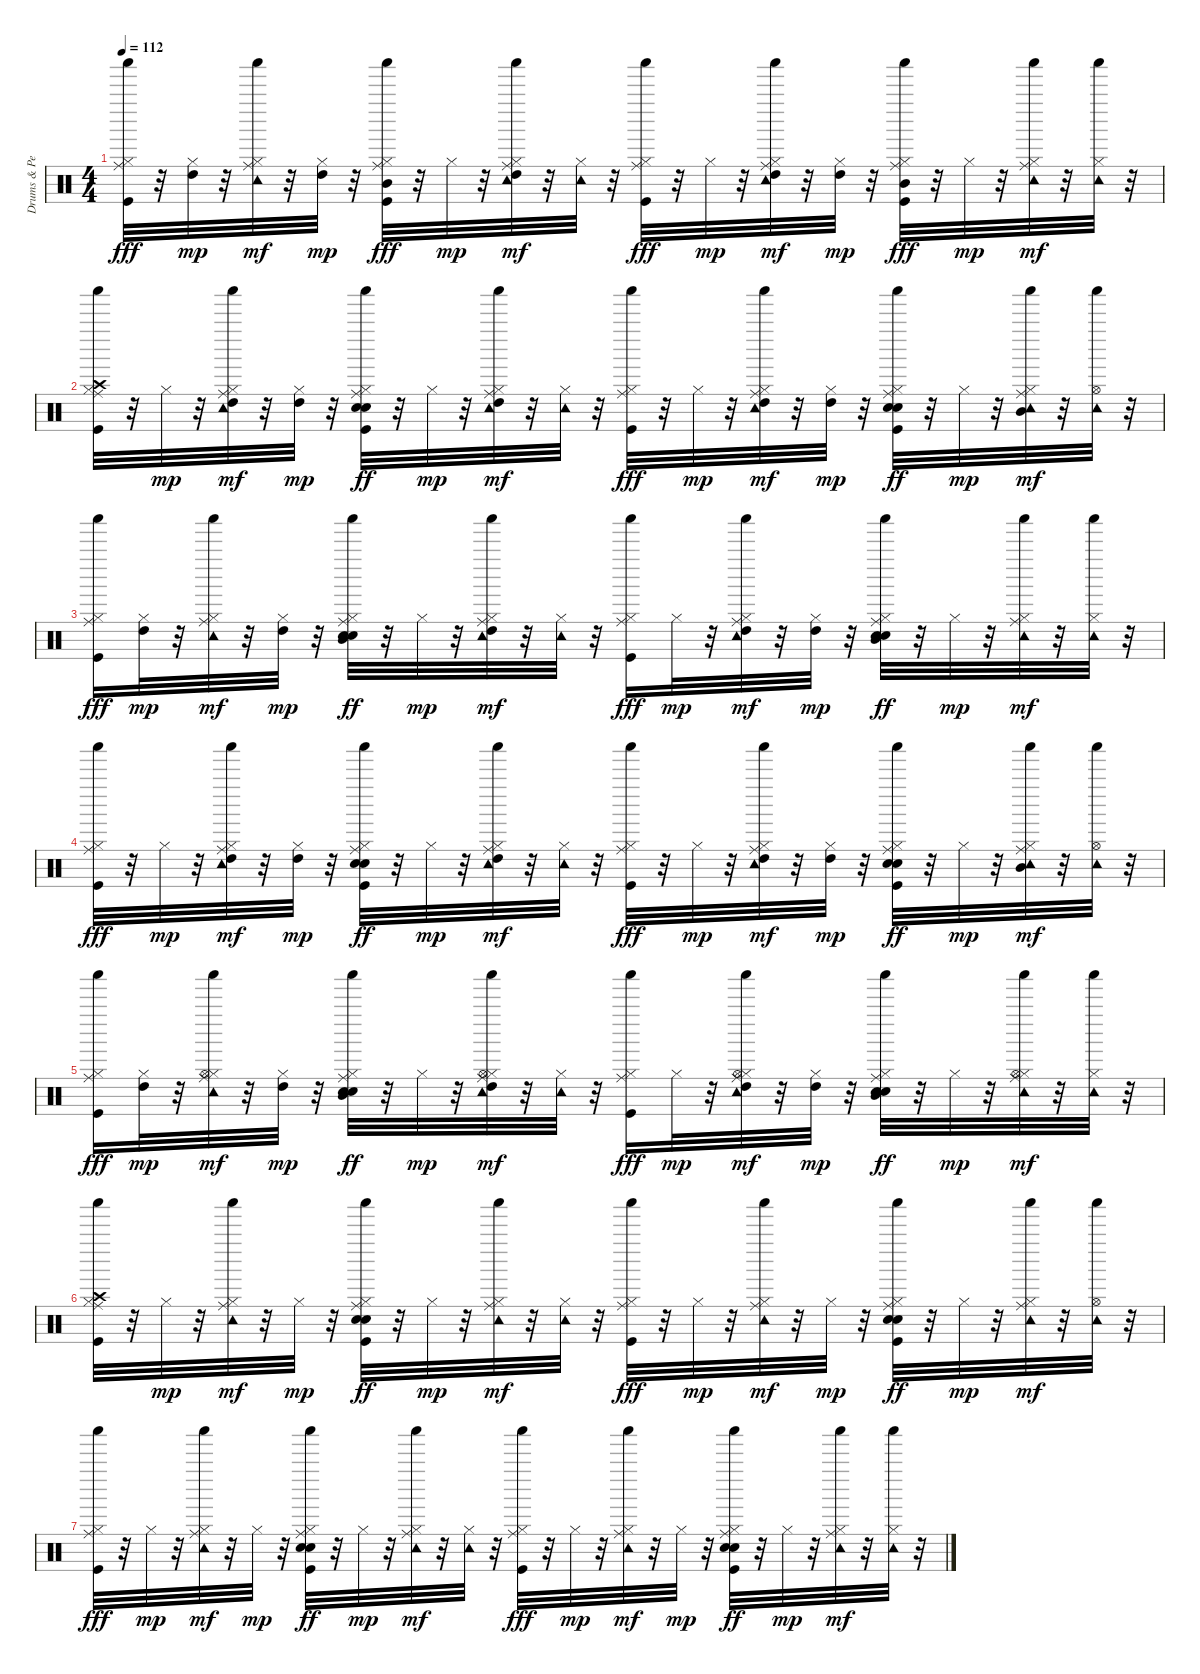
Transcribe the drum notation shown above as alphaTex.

\track ("Drums & Percussion" "Drums & Pe") {instrument percussion}
\staff {score}
\articulation defaults
\ts (4 4)
\tempo 112
\clef neutral
\ks c
("Shaker (hit)" "Hi-Hat (closed)" "Ride (middle)" "Kick (hit)").32{dy fff} r.32 ("Hi-Hat (closed)" "High Tom (hit)").32{dy mp} r.32 ("Shaker (hit)" "Hi-Hat (closed)" "Ride (middle)" "Tambourine (hit)").32{dy mf} r.32 ("Hi-Hat (closed)" "High Tom (hit)").32{dy mp} r.32 ("Shaker (hit)" "Hi-Hat (closed)" "Ride (middle)" "Mid Tom (hit)" "Kick (hit)").32{dy fff} r.32 "Hi-Hat (closed)".32{dy mp} r.32 ("Shaker (hit)" "Hi-Hat (closed)" "Ride (middle)" "Tambourine (hit)" "High Tom (hit)").32{dy mf} r.32 ("Hi-Hat (closed)" "Tambourine (hit)").32 r.32 ("Shaker (hit)" "Hi-Hat (closed)" "Ride (middle)" "Kick (hit)").32{dy fff} r.32 "Hi-Hat (closed)".32{dy mp} r.32 ("Shaker (hit)" "Hi-Hat (closed)" "Ride (middle)" "Tambourine (hit)" "High Tom (hit)").32{dy mf} r.32 ("Hi-Hat (closed)" "High Tom (hit)").32{dy mp} r.32 ("Shaker (hit)" "Hi-Hat (closed)" "Ride (middle)" "Mid Tom (hit)" "Kick (hit)").32{dy fff} r.32 "Hi-Hat (closed)".32{dy mp} r.32 ("Shaker (hit)" "Hi-Hat (closed)" "Ride (middle)" "Tambourine (hit)").32{dy mf} r.32 ("Shaker (hit)" "Hi-Hat (closed)" "Tambourine (hit)").32 r.32 |
("Shaker (hit)" "Hi-Hat (closed)" "Ride (middle)" "Crash high (hit)" "Kick (hit)").32 r.32 "Hi-Hat (closed)".32{dy mp} r.32 ("Shaker (hit)" "Hi-Hat (closed)" "Ride (middle)" "Tambourine (hit)" "High Tom (hit)").32{dy mf} r.32 ("Hi-Hat (closed)" "High Tom (hit)").32{dy mp} r.32 ("Shaker (hit)" "Snare (hit) 2" "Hi-Hat (closed)" "Ride (middle)" "Hand Clap (hit)" "Kick (hit)").32{dy ff} r.32 "Hi-Hat (closed)".32{dy mp} r.32 ("Shaker (hit)" "Hi-Hat (closed)" "Ride (middle)" "Tambourine (hit)" "High Tom (hit)").32{dy mf} r.32 ("Hi-Hat (closed)" "Tambourine (hit)").32 r.32 ("Shaker (hit)" "Hi-Hat (closed)" "Ride (middle)" "Kick (hit)").32{dy fff} r.32 "Hi-Hat (closed)".32{dy mp} r.32 ("Shaker (hit)" "Hi-Hat (closed)" "Ride (middle)" "Tambourine (hit)" "High Tom (hit)").32{dy mf} r.32 ("Hi-Hat (closed)" "High Tom (hit)").32{dy mp} r.32 ("Shaker (hit)" "Snare (hit) 2" "Hi-Hat (closed)" "Ride (middle)" "Hand Clap (hit)" "Kick (hit)").32{dy ff} r.32 "Hi-Hat (closed)".32{dy mp} r.32 ("Shaker (hit)" "Hi-Hat (closed)" "Ride (middle)" "Tambourine (hit)" "Mid Tom (hit)").32{dy mf} r.32 ("Hi-Hat (open)" "Shaker (hit)" "Tambourine (hit)").32 r.32 |
("Shaker (hit)" "Hi-Hat (closed)" "Ride (middle)" "Kick (hit)").16{dy fff} ("Hi-Hat (closed)" "High Tom (hit)").32{dy mp} r.32 ("Shaker (hit)" "Hi-Hat (closed)" "Ride (middle)" "Tambourine (hit)").32{dy mf} r.32 ("Hi-Hat (closed)" "High Tom (hit)").32{dy mp} r.32 ("Shaker (hit)" "Snare (hit) 2" "Hi-Hat (closed)" "Ride (middle)" "Hand Clap (hit)" "Mid Tom (hit)").32{dy ff} r.32 "Hi-Hat (closed)".32{dy mp} r.32 ("Shaker (hit)" "Hi-Hat (closed)" "Ride (middle)" "Tambourine (hit)" "High Tom (hit)").32{dy mf} r.32 ("Hi-Hat (closed)" "Tambourine (hit)").32 r.32 ("Shaker (hit)" "Hi-Hat (closed)" "Ride (middle)" "Kick (hit)").16{dy fff} "Hi-Hat (closed)".32{dy mp} r.32 ("Shaker (hit)" "Hi-Hat (closed)" "Ride (middle)" "Tambourine (hit)" "High Tom (hit)").32{dy mf} r.32 ("Hi-Hat (closed)" "High Tom (hit)").32{dy mp} r.32 ("Shaker (hit)" "Snare (hit) 2" "Hi-Hat (closed)" "Ride (middle)" "Hand Clap (hit)" "Mid Tom (hit)").32{dy ff} r.32 "Hi-Hat (closed)".32{dy mp} r.32 ("Shaker (hit)" "Hi-Hat (closed)" "Ride (middle)" "Tambourine (hit)").32{dy mf} r.32 ("Shaker (hit)" "Hi-Hat (closed)" "Tambourine (hit)").32 r.32 |
("Shaker (hit)" "Hi-Hat (closed)" "Ride (middle)" "Kick (hit)").32{dy fff} r.32 "Hi-Hat (closed)".32{dy mp} r.32 ("Shaker (hit)" "Hi-Hat (closed)" "Ride (middle)" "Tambourine (hit)" "High Tom (hit)").32{dy mf} r.32 ("Hi-Hat (closed)" "High Tom (hit)").32{dy mp} r.32 ("Shaker (hit)" "Snare (hit) 2" "Hi-Hat (closed)" "Ride (middle)" "Hand Clap (hit)" "Kick (hit)").32{dy ff} r.32 "Hi-Hat (closed)".32{dy mp} r.32 ("Shaker (hit)" "Hi-Hat (closed)" "Ride (middle)" "Tambourine (hit)" "High Tom (hit)").32{dy mf} r.32 ("Hi-Hat (closed)" "Tambourine (hit)").32 r.32 ("Shaker (hit)" "Hi-Hat (closed)" "Ride (middle)" "Kick (hit)").32{dy fff} r.32 "Hi-Hat (closed)".32{dy mp} r.32 ("Shaker (hit)" "Hi-Hat (closed)" "Ride (middle)" "Tambourine (hit)" "High Tom (hit)").32{dy mf} r.32 ("Hi-Hat (closed)" "High Tom (hit)").32{dy mp} r.32 ("Shaker (hit)" "Snare (hit) 2" "Hi-Hat (closed)" "Ride (middle)" "Hand Clap (hit)" "Kick (hit)").32{dy ff} r.32 "Hi-Hat (closed)".32{dy mp} r.32 ("Shaker (hit)" "Hi-Hat (closed)" "Ride (middle)" "Tambourine (hit)" "Mid Tom (hit)").32{dy mf} r.32 ("Hi-Hat (open)" "Shaker (hit)" "Tambourine (hit)").32 r.32 |
("Shaker (hit)" "Hi-Hat (closed)" "Ride (middle)" "Kick (hit)").16{dy fff} ("Hi-Hat (closed)" "High Tom (hit)").32{dy mp} r.32 ("Shaker (hit)" "Hi-Hat (closed)" "Hi-Hat (open)" "Ride (middle)" "Tambourine (hit)").32{dy mf} r.32 ("Hi-Hat (closed)" "High Tom (hit)").32{dy mp} r.32 ("Shaker (hit)" "Snare (hit) 2" "Hi-Hat (closed)" "Ride (middle)" "Hand Clap (hit)" "Mid Tom (hit)").32{dy ff} r.32 "Hi-Hat (closed)".32{dy mp} r.32 ("Shaker (hit)" "Hi-Hat (closed)" "Hi-Hat (open)" "Ride (middle)" "Tambourine (hit)" "High Tom (hit)").32{dy mf} r.32 ("Hi-Hat (closed)" "Tambourine (hit)").32 r.32 ("Shaker (hit)" "Hi-Hat (closed)" "Ride (middle)" "Kick (hit)").16{dy fff} "Hi-Hat (closed)".32{dy mp} r.32 ("Shaker (hit)" "Hi-Hat (closed)" "Hi-Hat (open)" "Ride (middle)" "Tambourine (hit)" "High Tom (hit)").32{dy mf} r.32 ("Hi-Hat (closed)" "High Tom (hit)").32{dy mp} r.32 ("Shaker (hit)" "Snare (hit) 2" "Hi-Hat (closed)" "Ride (middle)" "Hand Clap (hit)" "Mid Tom (hit)").32{dy ff} r.32 "Hi-Hat (closed)".32{dy mp} r.32 ("Shaker (hit)" "Hi-Hat (closed)" "Hi-Hat (open)" "Ride (middle)" "Tambourine (hit)").32{dy mf} r.32 ("Shaker (hit)" "Hi-Hat (closed)" "Tambourine (hit)").32 r.32 |
("Shaker (hit)" "Hi-Hat (closed)" "Ride (middle)" "Crash high (hit)" "Kick (hit)").32 r.32 "Hi-Hat (closed)".32{dy mp} r.32 ("Shaker (hit)" "Hi-Hat (closed)" "Ride (middle)" "Tambourine (hit)").32{dy mf} r.32 "Hi-Hat (closed)".32{dy mp} r.32 ("Shaker (hit)" "Snare (hit) 2" "Hi-Hat (closed)" "Ride (middle)" "Hand Clap (hit)" "Kick (hit)").32{dy ff} r.32 "Hi-Hat (closed)".32{dy mp} r.32 ("Shaker (hit)" "Hi-Hat (closed)" "Ride (middle)" "Tambourine (hit)").32{dy mf} r.32 ("Hi-Hat (closed)" "Tambourine (hit)").32 r.32 ("Shaker (hit)" "Hi-Hat (closed)" "Ride (middle)" "Kick (hit)").32{dy fff} r.32 "Hi-Hat (closed)".32{dy mp} r.32 ("Shaker (hit)" "Hi-Hat (closed)" "Ride (middle)" "Tambourine (hit)").32{dy mf} r.32 "Hi-Hat (closed)".32{dy mp} r.32 ("Shaker (hit)" "Snare (hit) 2" "Hi-Hat (closed)" "Ride (middle)" "Hand Clap (hit)" "Kick (hit)").32{dy ff} r.32 "Hi-Hat (closed)".32{dy mp} r.32 ("Shaker (hit)" "Hi-Hat (closed)" "Ride (middle)" "Tambourine (hit)").32{dy mf} r.32 ("Hi-Hat (open)" "Shaker (hit)" "Tambourine (hit)").32 r.32 |
("Shaker (hit)" "Hi-Hat (closed)" "Ride (middle)" "Kick (hit)").32{dy fff} r.32 "Hi-Hat (closed)".32{dy mp} r.32 ("Shaker (hit)" "Hi-Hat (closed)" "Ride (middle)" "Tambourine (hit)").32{dy mf} r.32 "Hi-Hat (closed)".32{dy mp} r.32 ("Shaker (hit)" "Snare (hit) 2" "Hi-Hat (closed)" "Ride (middle)" "Hand Clap (hit)" "Kick (hit)").32{dy ff} r.32 "Hi-Hat (closed)".32{dy mp} r.32 ("Shaker (hit)" "Hi-Hat (closed)" "Ride (middle)" "Tambourine (hit)").32{dy mf} r.32 ("Hi-Hat (closed)" "Tambourine (hit)").32 r.32 ("Shaker (hit)" "Hi-Hat (closed)" "Ride (middle)" "Kick (hit)").32{dy fff} r.32 "Hi-Hat (closed)".32{dy mp} r.32 ("Shaker (hit)" "Hi-Hat (closed)" "Ride (middle)" "Tambourine (hit)").32{dy mf} r.32 "Hi-Hat (closed)".32{dy mp} r.32 ("Shaker (hit)" "Snare (hit) 2" "Hi-Hat (closed)" "Ride (middle)" "Hand Clap (hit)" "Kick (hit)").32{dy ff} r.32 "Hi-Hat (closed)".32{dy mp} r.32 ("Shaker (hit)" "Hi-Hat (closed)" "Ride (middle)" "Tambourine (hit)").32{dy mf} r.32 ("Shaker (hit)" "Hi-Hat (closed)" "Tambourine (hit)").32 r.32
